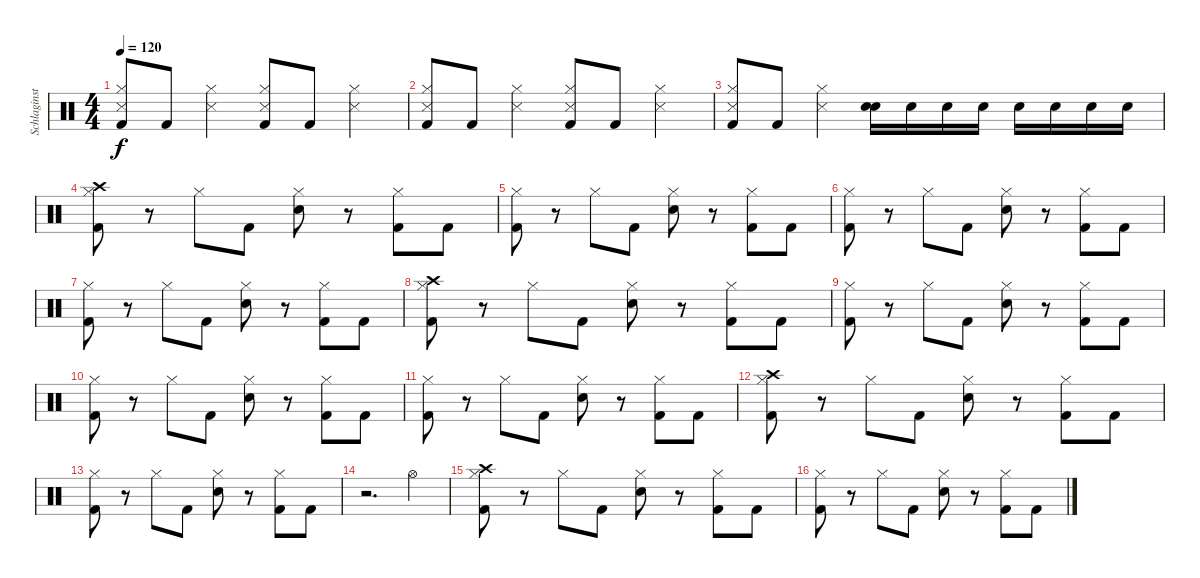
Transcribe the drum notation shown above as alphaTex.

\track ("Schlaginstrumente - Auswahl" "Schlaginst") {instrument percussion}
\staff {score}
\articulation defaults
\ts (4 4)
\tempo 120
\clef neutral
\ks c
("Kick (hit) 2" "Hi-Hat (closed)" "Snare (side stick) 3").8{dy f} "Kick (hit) 2".8 ("Hi-Hat (closed)" "Snare (side stick) 3").4 ("Kick (hit) 2" "Hi-Hat (closed)" "Snare (side stick) 3").8 "Kick (hit) 2".8 ("Hi-Hat (closed)" "Snare (side stick) 3").4 |
("Kick (hit) 2" "Hi-Hat (closed)" "Snare (side stick) 3").8 "Kick (hit) 2".8 ("Hi-Hat (closed)" "Snare (side stick) 3").4 ("Kick (hit) 2" "Hi-Hat (closed)" "Snare (side stick) 3").8 "Kick (hit) 2".8 ("Hi-Hat (closed)" "Snare (side stick) 3").4 |
("Kick (hit) 2" "Hi-Hat (closed)" "Snare (side stick) 3").8 "Kick (hit) 2".8 ("Hi-Hat (closed)" "Snare (side stick) 3").4 ("Snare (hit)" "Snare (hit) 2").16 "Snare (hit) 2".16 "Snare (hit) 2".16 "Snare (hit) 2".16 "Snare (hit) 2".16 "Snare (hit) 2".16 "Snare (hit) 2".16 "Snare (hit) 2".16 |
("Crash high (hit)" "Hi-Hat (closed)" "Kick (hit) 2").8 r.8 "Hi-Hat (closed)".8 "Kick (hit) 2".8 ("Hi-Hat (closed)" "Snare (hit) 2").8 r.8 ("Hi-Hat (closed)" "Kick (hit) 2").8 "Kick (hit) 2".8 |
("Hi-Hat (closed)" "Kick (hit) 2").8 r.8 "Hi-Hat (closed)".8 "Kick (hit) 2".8 ("Hi-Hat (closed)" "Snare (hit) 2").8 r.8 ("Hi-Hat (closed)" "Kick (hit) 2").8 "Kick (hit) 2".8 |
("Hi-Hat (closed)" "Kick (hit) 2").8 r.8 "Hi-Hat (closed)".8 "Kick (hit) 2".8 ("Hi-Hat (closed)" "Snare (hit) 2").8 r.8 ("Hi-Hat (closed)" "Kick (hit) 2").8 "Kick (hit) 2".8 |
("Hi-Hat (closed)" "Kick (hit) 2").8 r.8 "Hi-Hat (closed)".8 "Kick (hit) 2".8 ("Hi-Hat (closed)" "Snare (hit) 2").8 r.8 ("Hi-Hat (closed)" "Kick (hit) 2").8 "Kick (hit) 2".8 |
("Crash high (hit)" "Hi-Hat (closed)" "Kick (hit) 2").8 r.8 "Hi-Hat (closed)".8 "Kick (hit) 2".8 ("Hi-Hat (closed)" "Snare (hit) 2").8 r.8 ("Hi-Hat (closed)" "Kick (hit) 2").8 "Kick (hit) 2".8 |
("Hi-Hat (closed)" "Kick (hit) 2").8 r.8 "Hi-Hat (closed)".8 "Kick (hit) 2".8 ("Hi-Hat (closed)" "Snare (hit) 2").8 r.8 ("Hi-Hat (closed)" "Kick (hit) 2").8 "Kick (hit) 2".8 |
("Hi-Hat (closed)" "Kick (hit) 2").8 r.8 "Hi-Hat (closed)".8 "Kick (hit) 2".8 ("Hi-Hat (closed)" "Snare (hit) 2").8 r.8 ("Hi-Hat (closed)" "Kick (hit) 2").8 "Kick (hit) 2".8 |
("Hi-Hat (closed)" "Kick (hit) 2").8 r.8 "Hi-Hat (closed)".8 "Kick (hit) 2".8 ("Hi-Hat (closed)" "Snare (hit) 2").8 r.8 ("Hi-Hat (closed)" "Kick (hit) 2").8 "Kick (hit) 2".8 |
("Crash high (hit)" "Hi-Hat (closed)" "Kick (hit) 2").8 r.8 "Hi-Hat (closed)".8 "Kick (hit) 2".8 ("Hi-Hat (closed)" "Snare (hit) 2").8 r.8 ("Hi-Hat (closed)" "Kick (hit) 2").8 "Kick (hit) 2".8 |
("Hi-Hat (closed)" "Kick (hit) 2").8 r.8 "Hi-Hat (closed)".8 "Kick (hit) 2".8 ("Hi-Hat (closed)" "Snare (hit) 2").8 r.8 ("Hi-Hat (closed)" "Kick (hit) 2").8 "Kick (hit) 2".8 |
r.2{d} "Hi-Hat (open)".4 |
("Crash high (hit)" "Hi-Hat (closed)" "Kick (hit) 2").8 r.8 "Hi-Hat (closed)".8 "Kick (hit) 2".8 ("Hi-Hat (closed)" "Snare (hit) 2").8 r.8 ("Hi-Hat (closed)" "Kick (hit) 2").8 "Kick (hit) 2".8 |
("Hi-Hat (closed)" "Kick (hit) 2").8 r.8 "Hi-Hat (closed)".8 "Kick (hit) 2".8 ("Hi-Hat (closed)" "Snare (hit) 2").8 r.8 ("Hi-Hat (closed)" "Kick (hit) 2").8 "Kick (hit) 2".8
